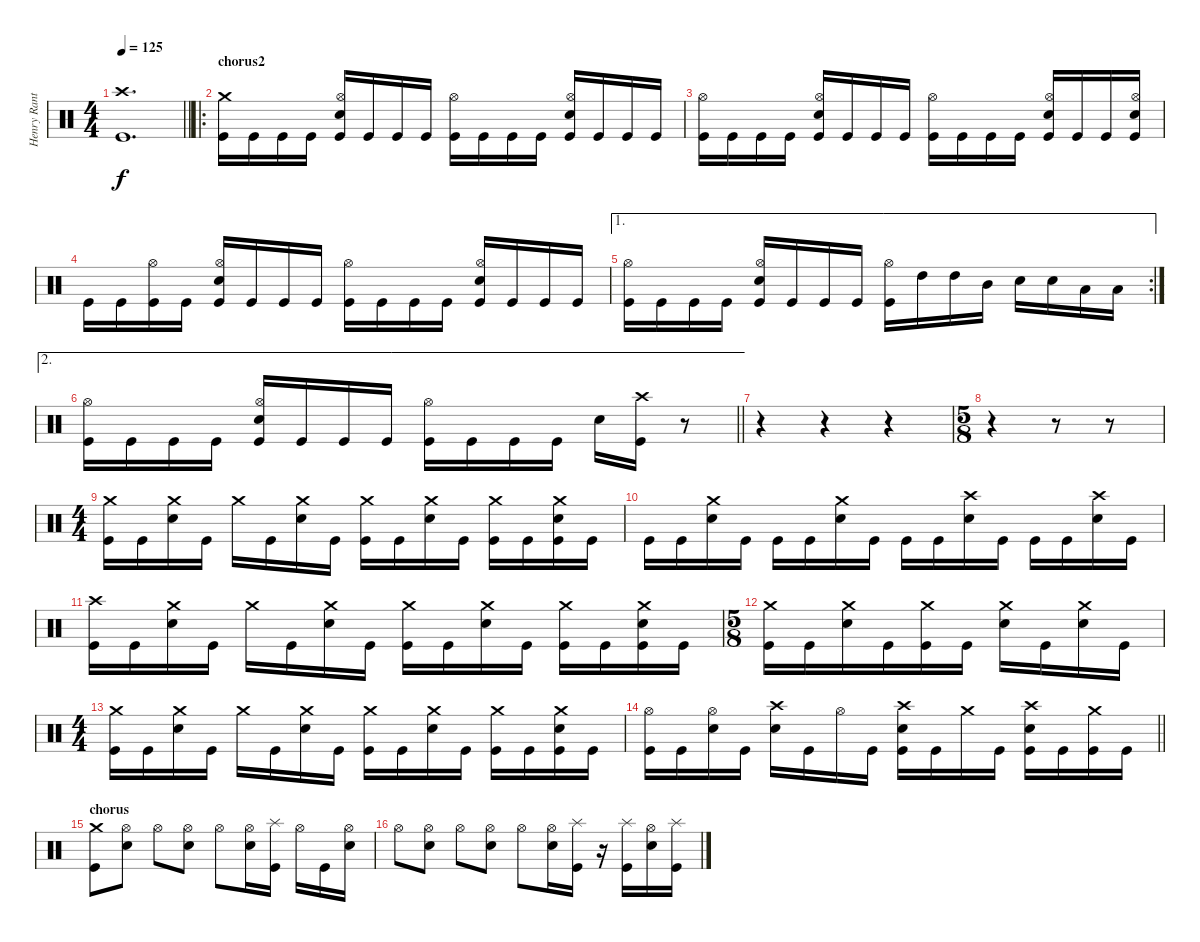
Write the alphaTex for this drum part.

\track ("Henry Ranta" "Henry Rant") {instrument percussion}
\staff {score}
\articulation defaults
\ts (4 4)
\tempo 125
\clef neutral
\barLineRight lightlight
\ks c
("Crash high (hit)" "Kick (hit)").1{d dy f} |
\ro
\section ("" "chorus2")
("Crash medium (hit)" "Kick (hit)").16 "Kick (hit)".16 "Kick (hit)".16 "Kick (hit)".16 ("Hi-Hat (open)" "Electric Snare (hit)" "Kick (hit)").16 "Kick (hit)".16 "Kick (hit)".16 "Kick (hit)".16 ("Hi-Hat (open)" "Kick (hit)").16 "Kick (hit)".16 "Kick (hit)".16 "Kick (hit)".16 ("Hi-Hat (open)" "Electric Snare (hit)" "Kick (hit)").16 "Kick (hit)".16 "Kick (hit)".16 "Kick (hit)".16 |
("Hi-Hat (open)" "Kick (hit)").16 "Kick (hit)".16 "Kick (hit)".16 "Kick (hit)".16 ("Hi-Hat (open)" "Electric Snare (hit)" "Kick (hit)").16 "Kick (hit)".16 "Kick (hit)".16 "Kick (hit)".16 ("Hi-Hat (open)" "Kick (hit)").16 "Kick (hit)".16 "Kick (hit)".16 "Kick (hit)".16 ("Hi-Hat (open)" "Electric Snare (hit)" "Kick (hit)").16 "Kick (hit)".16 "Kick (hit)".16 ("Hi-Hat (open)" "Electric Snare (hit)" "Kick (hit)").16 |
"Kick (hit)".16 "Kick (hit)".16 ("Hi-Hat (open)" "Kick (hit)").16 "Kick (hit)".16 ("Hi-Hat (open)" "Electric Snare (hit)" "Kick (hit)").16 "Kick (hit)".16 "Kick (hit)".16 "Kick (hit)".16 ("Hi-Hat (open)" "Kick (hit)").16 "Kick (hit)".16 "Kick (hit)".16 "Kick (hit)".16 ("Hi-Hat (open)" "Electric Snare (hit)" "Kick (hit)").16 "Kick (hit)".16 "Kick (hit)".16 "Kick (hit)".16 |
\ae 1
\rc 2
("Hi-Hat (open)" "Kick (hit)").16 "Kick (hit)".16 "Kick (hit)".16 "Kick (hit)".16 ("Hi-Hat (open)" "Electric Snare (hit)" "Kick (hit)").16 "Kick (hit)".16 "Kick (hit)".16 "Kick (hit)".16 ("Hi-Hat (open)" "Kick (hit)").16 "High Tom (hit)".16 "High Tom (hit)".16 "Mid Tom (hit)".16 "Electric Snare (hit)".16 "Electric Snare (hit)".16 "Low Tom (hit)".16 "Low Tom (hit)".16 |
\ae 2
\barLineRight lightlight
("Hi-Hat (open)" "Kick (hit)").16 "Kick (hit)".16 "Kick (hit)".16 "Kick (hit)".16 ("Hi-Hat (open)" "Electric Snare (hit)" "Kick (hit)").16 "Kick (hit)".16 "Kick (hit)".16 "Kick (hit)".16 ("Hi-Hat (open)" "Kick (hit)").16 "Kick (hit)".16 "Kick (hit)".16 "Kick (hit)".16 "Electric Snare (hit)".16 ("Crash high (hit)" "Kick (hit)").16 r.8 |
r.4 r.4 r.4 |
\ts (5 8)
r.4 r.8 r.8 |
\ts (4 4)
("Crash medium (hit)" "Kick (hit)").16 "Kick (hit)".16 ("Crash medium (hit)" "Electric Snare (hit)").16 "Kick (hit)".16 "Crash medium (hit)".16 "Kick (hit)".16 ("Crash medium (hit)" "Electric Snare (hit)").16 "Kick (hit)".16 ("Crash medium (hit)" "Kick (hit)").16 "Kick (hit)".16 ("Crash medium (hit)" "Electric Snare (hit)").16 "Kick (hit)".16 ("Crash medium (hit)" "Kick (hit)").16 "Kick (hit)".16 ("Crash medium (hit)" "Electric Snare (hit)" "Kick (hit)").16 "Kick (hit)".16 |
"Kick (hit)".16 "Kick (hit)".16 ("Crash medium (hit)" "Electric Snare (hit)").16 "Kick (hit)".16 "Kick (hit)".16 "Kick (hit)".16 ("Crash medium (hit)" "Electric Snare (hit)").16 "Kick (hit)".16 "Kick (hit)".16 "Kick (hit)".16 ("Crash high (hit)" "Electric Snare (hit)").16 "Kick (hit)".16 "Kick (hit)".16 "Kick (hit)".16 ("Crash high (hit)" "Electric Snare (hit)").16 "Kick (hit)".16 |
("Crash high (hit)" "Kick (hit)").16 "Kick (hit)".16 ("Crash medium (hit)" "Electric Snare (hit)").16 "Kick (hit)".16 "Crash medium (hit)".16 "Kick (hit)".16 ("Crash medium (hit)" "Electric Snare (hit)").16 "Kick (hit)".16 ("Crash medium (hit)" "Kick (hit)").16 "Kick (hit)".16 ("Crash medium (hit)" "Electric Snare (hit)").16 "Kick (hit)".16 ("Crash medium (hit)" "Kick (hit)").16 "Kick (hit)".16 ("Crash medium (hit)" "Electric Snare (hit)" "Kick (hit)").16 "Kick (hit)".16 |
\ts (5 8)
("Crash medium (hit)" "Kick (hit)").16 "Kick (hit)".16 ("Crash medium (hit)" "Electric Snare (hit)").16 "Kick (hit)".16 ("Crash medium (hit)" "Kick (hit)").16 "Kick (hit)".16 ("Crash medium (hit)" "Electric Snare (hit)").16 "Kick (hit)".16 ("Crash medium (hit)" "Electric Snare (hit)").16 "Kick (hit)".16 |
\ts (4 4)
("Crash medium (hit)" "Kick (hit)").16 "Kick (hit)".16 ("Crash medium (hit)" "Electric Snare (hit)").16 "Kick (hit)".16 "Crash medium (hit)".16 "Kick (hit)".16 ("Crash medium (hit)" "Electric Snare (hit)").16 "Kick (hit)".16 ("Crash medium (hit)" "Kick (hit)").16 "Kick (hit)".16 ("Crash medium (hit)" "Electric Snare (hit)").16 "Kick (hit)".16 ("Crash medium (hit)" "Kick (hit)").16 "Kick (hit)".16 ("Crash medium (hit)" "Electric Snare (hit)" "Kick (hit)").16 "Kick (hit)".16 |
\barLineRight lightlight
("Hi-Hat (open)" "Kick (hit)").16 "Kick (hit)".16 ("Hi-Hat (open)" "Electric Snare (hit)").16 "Kick (hit)".16 ("Crash high (hit)" "Electric Snare (hit)").16 "Kick (hit)".16 "Hi-Hat (open)".16 "Kick (hit)".16 ("Crash high (hit)" "Electric Snare (hit)" "Kick (hit)").16 "Kick (hit)".16 "Crash medium (hit)".16 "Kick (hit)".16 ("Crash high (hit)" "Electric Snare (hit)" "Kick (hit)").16 "Kick (hit)".16 ("Crash medium (hit)" "Kick (hit)").16 "Kick (hit)".16 |
\section ("" "chorus")
("Crash medium (hit)" "Kick (hit)").8 ("Hi-Hat (open)" "Electric Snare (hit)").8 "Hi-Hat (open)".8 ("Hi-Hat (open)" "Electric Snare (hit)").8 "Hi-Hat (open)".8 ("Hi-Hat (open)" "Electric Snare (hit)").16 ("Splash (hit)" "Kick (hit)").16 "Hi-Hat (open)".16 "Kick (hit)".16 ("Hi-Hat (open)" "Electric Snare (hit)").16 |
"Hi-Hat (open)".8 ("Hi-Hat (open)" "Electric Snare (hit)").8 "Hi-Hat (open)".8 ("Hi-Hat (open)" "Electric Snare (hit)").8 "Hi-Hat (open)".8 ("Hi-Hat (open)" "Electric Snare (hit)").16 ("Splash (hit)" "Kick (hit)").16 r.16 ("Splash (hit)" "Kick (hit)").16 ("Hi-Hat (open)" "Electric Snare (hit)").16 ("Splash (hit)" "Kick (hit)").16
